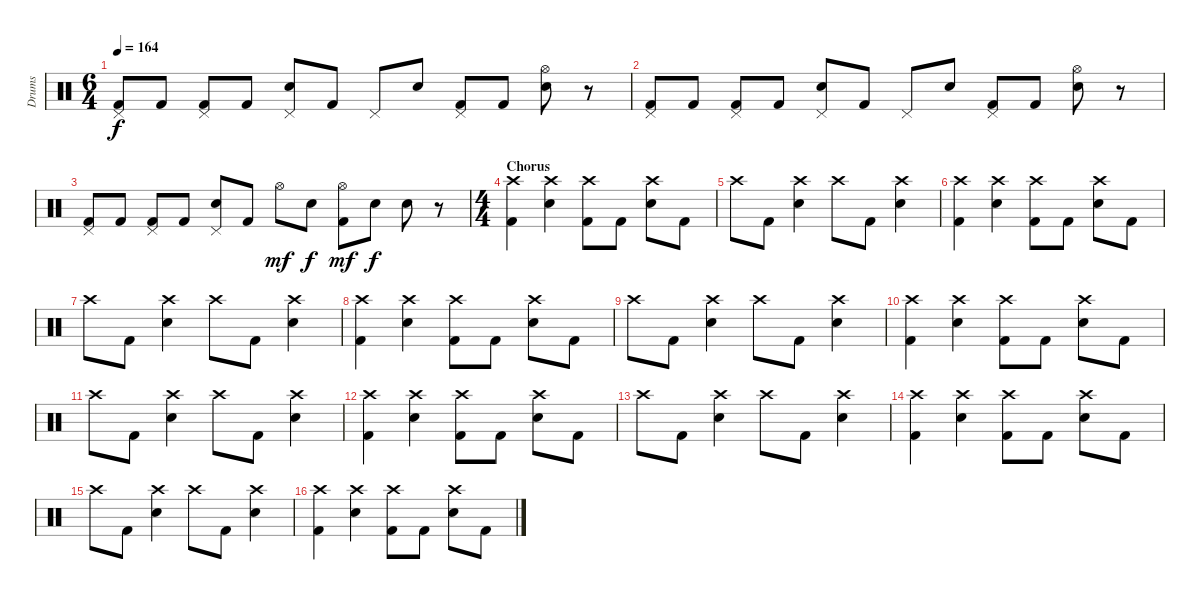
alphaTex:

\track ("Drums" "Drums") {instrument percussion}
\staff {score}
\articulation defaults
\ts (6 4)
\tempo 164
\clef neutral
\ks c
("Pedal Hi-Hat (hit)" "Kick (hit) 2").8{dy f} "Kick (hit) 2".8 ("Pedal Hi-Hat (hit)" "Kick (hit) 2").8 "Kick (hit) 2".8 ("Pedal Hi-Hat (hit)" "Electric Snare (hit)").8 "Kick (hit) 2".8 "Pedal Hi-Hat (hit)".8 "Electric Snare (hit)".8 ("Pedal Hi-Hat (hit)" "Kick (hit) 2").8 "Kick (hit) 2".8 ("Hi-Hat (open)" "Electric Snare (hit)").8 r.8 |
("Pedal Hi-Hat (hit)" "Kick (hit) 2").8 "Kick (hit) 2".8 ("Pedal Hi-Hat (hit)" "Kick (hit) 2").8 "Kick (hit) 2".8 ("Pedal Hi-Hat (hit)" "Electric Snare (hit)").8 "Kick (hit) 2".8 "Pedal Hi-Hat (hit)".8 "Electric Snare (hit)".8 ("Pedal Hi-Hat (hit)" "Kick (hit) 2").8 "Kick (hit) 2".8 ("Hi-Hat (open)" "Electric Snare (hit)").8 r.8 |
("Pedal Hi-Hat (hit)" "Kick (hit) 2").8 "Kick (hit) 2".8 ("Pedal Hi-Hat (hit)" "Kick (hit) 2").8 "Kick (hit) 2".8 ("Pedal Hi-Hat (hit)" "Electric Snare (hit)").8 "Kick (hit) 2".8 "Hi-Hat (open)".8{dy mf} "Electric Snare (hit)".8{dy f} ("Hi-Hat (open)" "Kick (hit) 2").8{dy mf} "Electric Snare (hit)".8{dy f} "Electric Snare (hit)".8 r.8 |
\ts (4 4)
\section ("" "Chorus")
("Crash high (hit)" "Kick (hit) 2").4 ("Crash high (hit)" "Electric Snare (hit)").4 ("Crash high (hit)" "Kick (hit) 2").8 "Kick (hit) 2".8 ("Crash high (hit)" "Electric Snare (hit)").8 "Kick (hit) 2".8 |
"Crash high (hit)".8 "Kick (hit) 2".8 ("Crash high (hit)" "Electric Snare (hit)").4 "Crash high (hit)".8 "Kick (hit) 2".8 ("Crash high (hit)" "Electric Snare (hit)").4 |
("Crash high (hit)" "Kick (hit) 2").4 ("Crash high (hit)" "Electric Snare (hit)").4 ("Crash high (hit)" "Kick (hit) 2").8 "Kick (hit) 2".8 ("Crash high (hit)" "Electric Snare (hit)").8 "Kick (hit) 2".8 |
"Crash high (hit)".8 "Kick (hit) 2".8 ("Crash high (hit)" "Electric Snare (hit)").4 "Crash high (hit)".8 "Kick (hit) 2".8 ("Crash high (hit)" "Electric Snare (hit)").4 |
("Crash high (hit)" "Kick (hit) 2").4 ("Crash high (hit)" "Electric Snare (hit)").4 ("Crash high (hit)" "Kick (hit) 2").8 "Kick (hit) 2".8 ("Crash high (hit)" "Electric Snare (hit)").8 "Kick (hit) 2".8 |
"Crash high (hit)".8 "Kick (hit) 2".8 ("Crash high (hit)" "Electric Snare (hit)").4 "Crash high (hit)".8 "Kick (hit) 2".8 ("Crash high (hit)" "Electric Snare (hit)").4 |
("Crash high (hit)" "Kick (hit) 2").4 ("Crash high (hit)" "Electric Snare (hit)").4 ("Crash high (hit)" "Kick (hit) 2").8 "Kick (hit) 2".8 ("Crash high (hit)" "Electric Snare (hit)").8 "Kick (hit) 2".8 |
"Crash high (hit)".8 "Kick (hit) 2".8 ("Crash high (hit)" "Electric Snare (hit)").4 "Crash high (hit)".8 "Kick (hit) 2".8 ("Crash high (hit)" "Electric Snare (hit)").4 |
("Crash high (hit)" "Kick (hit) 2").4 ("Crash high (hit)" "Electric Snare (hit)").4 ("Crash high (hit)" "Kick (hit) 2").8 "Kick (hit) 2".8 ("Crash high (hit)" "Electric Snare (hit)").8 "Kick (hit) 2".8 |
"Crash high (hit)".8 "Kick (hit) 2".8 ("Crash high (hit)" "Electric Snare (hit)").4 "Crash high (hit)".8 "Kick (hit) 2".8 ("Crash high (hit)" "Electric Snare (hit)").4 |
("Crash high (hit)" "Kick (hit) 2").4 ("Crash high (hit)" "Electric Snare (hit)").4 ("Crash high (hit)" "Kick (hit) 2").8 "Kick (hit) 2".8 ("Crash high (hit)" "Electric Snare (hit)").8 "Kick (hit) 2".8 |
"Crash high (hit)".8 "Kick (hit) 2".8 ("Crash high (hit)" "Electric Snare (hit)").4 "Crash high (hit)".8 "Kick (hit) 2".8 ("Crash high (hit)" "Electric Snare (hit)").4 |
("Crash high (hit)" "Kick (hit) 2").4 ("Crash high (hit)" "Electric Snare (hit)").4 ("Crash high (hit)" "Kick (hit) 2").8 "Kick (hit) 2".8 ("Crash high (hit)" "Electric Snare (hit)").8 "Kick (hit) 2".8
